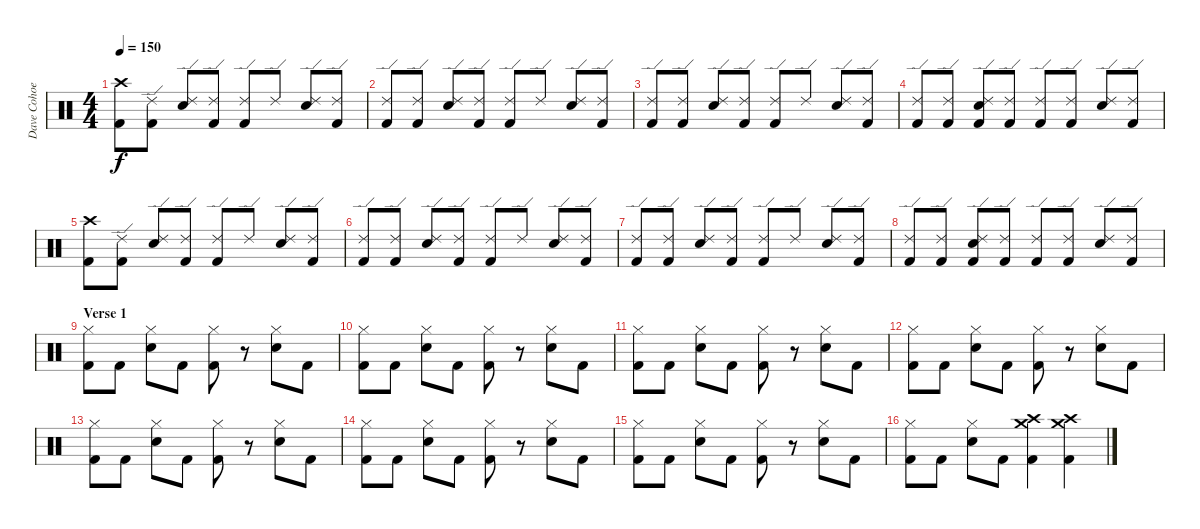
\track ("Dave Cohoe" "Dave Cohoe") {instrument percussion}
\staff {score}
\articulation defaults
\ts (4 4)
\tempo 150
\clef neutral
\ks c
("Crash high (hit)" "Kick (hit) 2").8{dy f} ("Ride (edge) 2" "Kick (hit) 2").8 ("Ride (edge) 2" "Snare (hit) 2").8 ("Ride (edge) 2" "Kick (hit) 2").8 ("Ride (edge) 2" "Kick (hit) 2").8 "Ride (edge) 2".8 ("Ride (edge) 2" "Snare (hit) 2").8 ("Ride (edge) 2" "Kick (hit) 2").8 |
("Ride (edge) 2" "Kick (hit) 2").8 ("Ride (edge) 2" "Kick (hit) 2").8 ("Ride (edge) 2" "Snare (hit) 2").8 ("Ride (edge) 2" "Kick (hit) 2").8 ("Ride (edge) 2" "Kick (hit) 2").8 "Ride (edge) 2".8 ("Ride (edge) 2" "Snare (hit) 2").8 ("Ride (edge) 2" "Kick (hit) 2").8 |
("Ride (edge) 2" "Kick (hit) 2").8 ("Ride (edge) 2" "Kick (hit) 2").8 ("Ride (edge) 2" "Snare (hit) 2").8 ("Ride (edge) 2" "Kick (hit) 2").8 ("Ride (edge) 2" "Kick (hit) 2").8 "Ride (edge) 2".8 ("Ride (edge) 2" "Snare (hit) 2").8 ("Ride (edge) 2" "Kick (hit) 2").8 |
("Ride (edge) 2" "Kick (hit) 2").8 ("Ride (edge) 2" "Kick (hit) 2").8 ("Ride (edge) 2" "Snare (hit) 2" "Kick (hit) 2").8 ("Ride (edge) 2" "Kick (hit) 2").8 ("Ride (edge) 2" "Kick (hit) 2").8 ("Ride (edge) 2" "Kick (hit) 2").8 ("Ride (edge) 2" "Snare (hit) 2").8 ("Ride (edge) 2" "Kick (hit) 2").8 |
("Crash high (hit)" "Kick (hit) 2").8 ("Ride (edge) 2" "Kick (hit) 2").8 ("Ride (edge) 2" "Snare (hit) 2").8 ("Ride (edge) 2" "Kick (hit) 2").8 ("Ride (edge) 2" "Kick (hit) 2").8 "Ride (edge) 2".8 ("Ride (edge) 2" "Snare (hit) 2").8 ("Ride (edge) 2" "Kick (hit) 2").8 |
("Ride (edge) 2" "Kick (hit) 2").8 ("Ride (edge) 2" "Kick (hit) 2").8 ("Ride (edge) 2" "Snare (hit) 2").8 ("Ride (edge) 2" "Kick (hit) 2").8 ("Ride (edge) 2" "Kick (hit) 2").8 "Ride (edge) 2".8 ("Ride (edge) 2" "Snare (hit) 2").8 ("Ride (edge) 2" "Kick (hit) 2").8 |
("Ride (edge) 2" "Kick (hit) 2").8 ("Ride (edge) 2" "Kick (hit) 2").8 ("Ride (edge) 2" "Snare (hit) 2").8 ("Ride (edge) 2" "Kick (hit) 2").8 ("Ride (edge) 2" "Kick (hit) 2").8 "Ride (edge) 2".8 ("Ride (edge) 2" "Snare (hit) 2").8 ("Ride (edge) 2" "Kick (hit) 2").8 |
("Ride (edge) 2" "Kick (hit) 2").8 ("Ride (edge) 2" "Kick (hit) 2").8 ("Ride (edge) 2" "Snare (hit) 2" "Kick (hit) 2").8 ("Ride (edge) 2" "Kick (hit) 2").8 ("Ride (edge) 2" "Kick (hit) 2").8 ("Ride (edge) 2" "Kick (hit) 2").8 ("Ride (edge) 2" "Snare (hit) 2").8 ("Ride (edge) 2" "Kick (hit) 2").8 |
\section ("" "Verse 1")
("Hi-Hat (closed)" "Kick (hit) 2").8 "Kick (hit) 2".8 ("Hi-Hat (closed)" "Snare (hit) 2").8 "Kick (hit) 2".8 ("Hi-Hat (closed)" "Kick (hit) 2").8 r.8 ("Hi-Hat (closed)" "Snare (hit) 2").8 "Kick (hit) 2".8 |
("Hi-Hat (closed)" "Kick (hit) 2").8 "Kick (hit) 2".8 ("Hi-Hat (closed)" "Snare (hit) 2").8 "Kick (hit) 2".8 ("Hi-Hat (closed)" "Kick (hit) 2").8 r.8 ("Hi-Hat (closed)" "Snare (hit) 2").8 "Kick (hit) 2".8 |
("Hi-Hat (closed)" "Kick (hit) 2").8 "Kick (hit) 2".8 ("Hi-Hat (closed)" "Snare (hit) 2").8 "Kick (hit) 2".8 ("Hi-Hat (closed)" "Kick (hit) 2").8 r.8 ("Hi-Hat (closed)" "Snare (hit) 2").8 "Kick (hit) 2".8 |
("Hi-Hat (closed)" "Kick (hit) 2").8 "Kick (hit) 2".8 ("Hi-Hat (closed)" "Snare (hit) 2").8 "Kick (hit) 2".8 ("Hi-Hat (closed)" "Kick (hit) 2").8 r.8 ("Hi-Hat (closed)" "Snare (hit) 2").8 "Kick (hit) 2".8 |
("Hi-Hat (closed)" "Kick (hit) 2").8 "Kick (hit) 2".8 ("Hi-Hat (closed)" "Snare (hit) 2").8 "Kick (hit) 2".8 ("Hi-Hat (closed)" "Kick (hit) 2").8 r.8 ("Hi-Hat (closed)" "Snare (hit) 2").8 "Kick (hit) 2".8 |
("Hi-Hat (closed)" "Kick (hit) 2").8 "Kick (hit) 2".8 ("Hi-Hat (closed)" "Snare (hit) 2").8 "Kick (hit) 2".8 ("Hi-Hat (closed)" "Kick (hit) 2").8 r.8 ("Hi-Hat (closed)" "Snare (hit) 2").8 "Kick (hit) 2".8 |
("Hi-Hat (closed)" "Kick (hit) 2").8 "Kick (hit) 2".8 ("Hi-Hat (closed)" "Snare (hit) 2").8 "Kick (hit) 2".8 ("Hi-Hat (closed)" "Kick (hit) 2").8 r.8 ("Hi-Hat (closed)" "Snare (hit) 2").8 "Kick (hit) 2".8 |
("Hi-Hat (closed)" "Kick (hit) 2").8 "Kick (hit) 2".8 ("Hi-Hat (closed)" "Snare (hit) 2").8 "Kick (hit) 2".8 ("Crash high (hit)" "Crash medium (hit)" "Kick (hit) 2").4 ("Crash high (hit)" "Crash medium (hit)" "Kick (hit) 2").4
